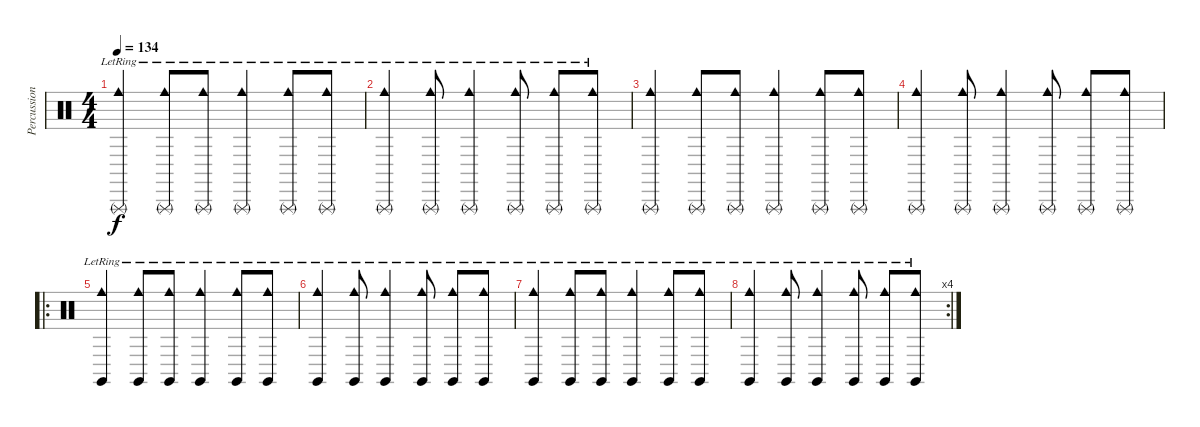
\track ("Percussion" "Percussion") {instrument percussion}
\staff {score}
\articulation defaults
\ts (4 4)
\tempo 134
\clef neutral
\ks c
("Cowbell medium (hit)"{lr} "Triangle (rnute)").4{dy f} ("Cowbell medium (hit)"{lr} "Triangle (rnute)").8 ("Cowbell medium (hit)"{lr} "Triangle (rnute)").8 ("Cowbell medium (hit)"{lr} "Triangle (rnute)").4 ("Cowbell medium (hit)"{lr} "Triangle (rnute)").8 ("Cowbell medium (hit)"{lr} "Triangle (rnute)").8 |
("Cowbell medium (hit)"{lr} "Triangle (rnute)").4 ("Cowbell medium (hit)"{lr} "Triangle (rnute)").8 ("Cowbell medium (hit)"{lr} "Triangle (rnute)").4 ("Cowbell medium (hit)"{lr} "Triangle (rnute)").8 ("Cowbell medium (hit)"{lr} "Triangle (rnute)").8 ("Cowbell medium (hit)"{lr} "Triangle (rnute)").8 |
("Cowbell medium (hit)" "Triangle (rnute)").4 ("Cowbell medium (hit)" "Triangle (rnute)").8 ("Cowbell medium (hit)" "Triangle (rnute)").8 ("Cowbell medium (hit)" "Triangle (rnute)").4 ("Cowbell medium (hit)" "Triangle (rnute)").8 ("Cowbell medium (hit)" "Triangle (rnute)").8 |
("Cowbell medium (hit)" "Triangle (rnute)").4 ("Cowbell medium (hit)" "Triangle (rnute)").8 ("Cowbell medium (hit)" "Triangle (rnute)").4 ("Cowbell medium (hit)" "Triangle (rnute)").8 ("Cowbell medium (hit)" "Triangle (rnute)").8 ("Cowbell medium (hit)" "Triangle (rnute)").8 |
\ro
("Cowbell medium (hit)"{lr} "Claves (hit)").4 ("Cowbell medium (hit)"{lr} "Claves (hit)").8 ("Cowbell medium (hit)"{lr} "Claves (hit)").8 ("Cowbell medium (hit)"{lr} "Claves (hit)").4 ("Cowbell medium (hit)"{lr} "Claves (hit)").8 ("Cowbell medium (hit)"{lr} "Claves (hit)").8 |
("Cowbell medium (hit)"{lr} "Claves (hit)").4 ("Cowbell medium (hit)"{lr} "Claves (hit)").8 ("Cowbell medium (hit)"{lr} "Claves (hit)").4 ("Cowbell medium (hit)"{lr} "Claves (hit)").8 ("Cowbell medium (hit)"{lr} "Claves (hit)").8 ("Cowbell medium (hit)"{lr} "Claves (hit)").8 |
("Cowbell medium (hit)"{lr} "Claves (hit)").4 ("Cowbell medium (hit)"{lr} "Claves (hit)").8 ("Cowbell medium (hit)"{lr} "Claves (hit)").8 ("Cowbell medium (hit)"{lr} "Claves (hit)").4 ("Cowbell medium (hit)"{lr} "Claves (hit)").8 ("Cowbell medium (hit)"{lr} "Claves (hit)").8 |
\rc 4
("Cowbell medium (hit)"{lr} "Claves (hit)").4 ("Cowbell medium (hit)"{lr} "Claves (hit)").8 ("Cowbell medium (hit)"{lr} "Claves (hit)").4 ("Cowbell medium (hit)"{lr} "Claves (hit)").8 ("Cowbell medium (hit)"{lr} "Claves (hit)").8 ("Cowbell medium (hit)"{lr} "Claves (hit)").8
